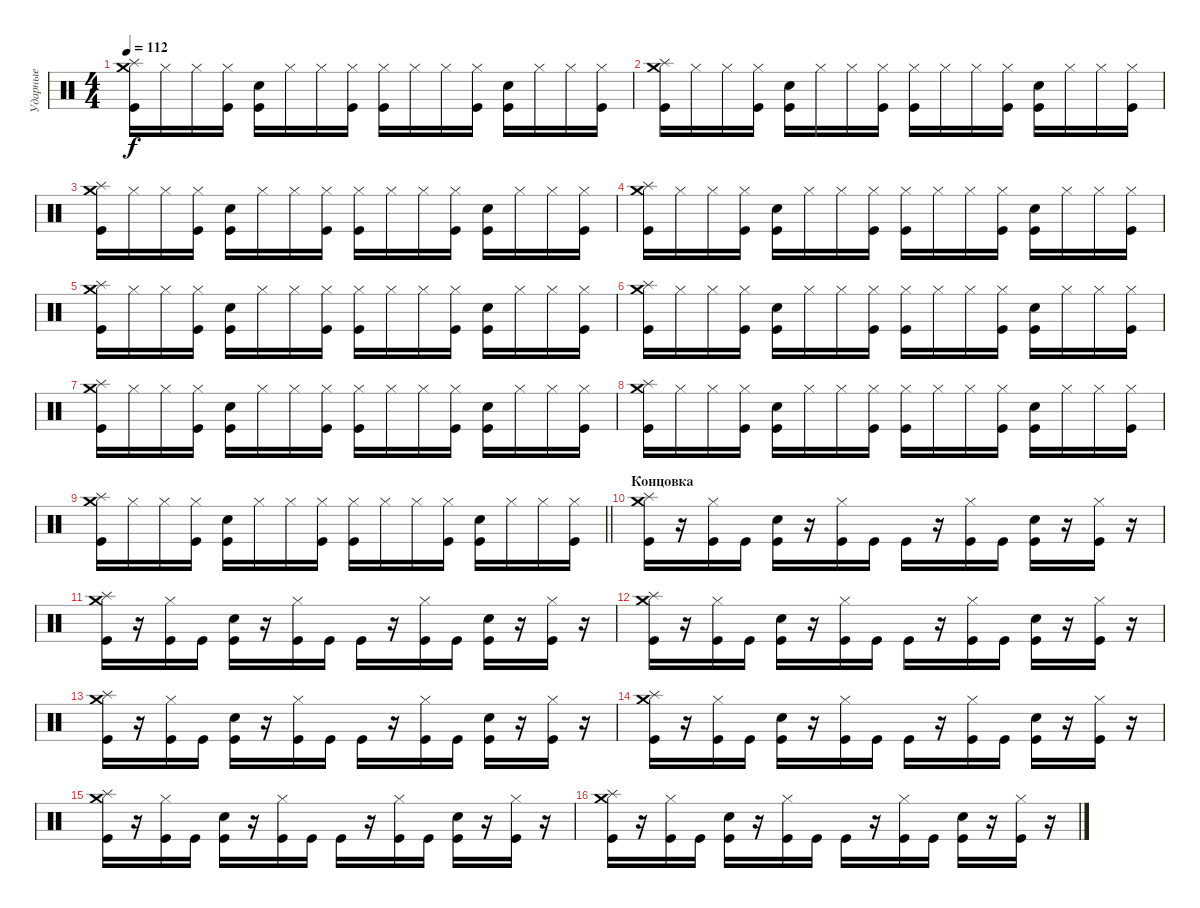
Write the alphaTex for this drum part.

\track ("Ударные" "Ударные") {instrument percussion}
\staff {score}
\articulation defaults
\ts (4 4)
\tempo 112
\clef neutral
\ks c
("Splash (hit)" "Crash medium (hit)" "Kick (hit)").16{dy f} "Hi-Hat (closed)".16 "Hi-Hat (closed)".16 ("Hi-Hat (closed)" "Kick (hit)").16 ("Snare (hit) 2" "Kick (hit)").16 "Hi-Hat (closed)".16 "Hi-Hat (closed)".16 ("Hi-Hat (closed)" "Kick (hit)").16 ("Hi-Hat (closed)" "Kick (hit)").16 "Hi-Hat (closed)".16 "Hi-Hat (closed)".16 ("Hi-Hat (closed)" "Kick (hit)").16 ("Snare (hit) 2" "Kick (hit)").16 "Hi-Hat (closed)".16 "Hi-Hat (closed)".16 ("Hi-Hat (closed)" "Kick (hit)").16 |
("Splash (hit)" "Crash medium (hit)" "Kick (hit)").16 "Hi-Hat (closed)".16 "Hi-Hat (closed)".16 ("Hi-Hat (closed)" "Kick (hit)").16 ("Snare (hit) 2" "Kick (hit)").16 "Hi-Hat (closed)".16 "Hi-Hat (closed)".16 ("Hi-Hat (closed)" "Kick (hit)").16 ("Hi-Hat (closed)" "Kick (hit)").16 "Hi-Hat (closed)".16 "Hi-Hat (closed)".16 ("Hi-Hat (closed)" "Kick (hit)").16 ("Snare (hit) 2" "Kick (hit)").16 "Hi-Hat (closed)".16 "Hi-Hat (closed)".16 ("Hi-Hat (closed)" "Kick (hit)").16 |
("Splash (hit)" "Crash medium (hit)" "Kick (hit)").16 "Hi-Hat (closed)".16 "Hi-Hat (closed)".16 ("Hi-Hat (closed)" "Kick (hit)").16 ("Snare (hit) 2" "Kick (hit)").16 "Hi-Hat (closed)".16 "Hi-Hat (closed)".16 ("Hi-Hat (closed)" "Kick (hit)").16 ("Hi-Hat (closed)" "Kick (hit)").16 "Hi-Hat (closed)".16 "Hi-Hat (closed)".16 ("Hi-Hat (closed)" "Kick (hit)").16 ("Snare (hit) 2" "Kick (hit)").16 "Hi-Hat (closed)".16 "Hi-Hat (closed)".16 ("Hi-Hat (closed)" "Kick (hit)").16 |
("Splash (hit)" "Crash medium (hit)" "Kick (hit)").16 "Hi-Hat (closed)".16 "Hi-Hat (closed)".16 ("Hi-Hat (closed)" "Kick (hit)").16 ("Snare (hit) 2" "Kick (hit)").16 "Hi-Hat (closed)".16 "Hi-Hat (closed)".16 ("Hi-Hat (closed)" "Kick (hit)").16 ("Hi-Hat (closed)" "Kick (hit)").16 "Hi-Hat (closed)".16 "Hi-Hat (closed)".16 ("Hi-Hat (closed)" "Kick (hit)").16 ("Snare (hit) 2" "Kick (hit)").16 "Hi-Hat (closed)".16 "Hi-Hat (closed)".16 ("Hi-Hat (closed)" "Kick (hit)").16 |
("Splash (hit)" "Crash medium (hit)" "Kick (hit)").16 "Hi-Hat (closed)".16 "Hi-Hat (closed)".16 ("Hi-Hat (closed)" "Kick (hit)").16 ("Snare (hit) 2" "Kick (hit)").16 "Hi-Hat (closed)".16 "Hi-Hat (closed)".16 ("Hi-Hat (closed)" "Kick (hit)").16 ("Hi-Hat (closed)" "Kick (hit)").16 "Hi-Hat (closed)".16 "Hi-Hat (closed)".16 ("Hi-Hat (closed)" "Kick (hit)").16 ("Snare (hit) 2" "Kick (hit)").16 "Hi-Hat (closed)".16 "Hi-Hat (closed)".16 ("Hi-Hat (closed)" "Kick (hit)").16 |
("Splash (hit)" "Crash medium (hit)" "Kick (hit)").16 "Hi-Hat (closed)".16 "Hi-Hat (closed)".16 ("Hi-Hat (closed)" "Kick (hit)").16 ("Snare (hit) 2" "Kick (hit)").16 "Hi-Hat (closed)".16 "Hi-Hat (closed)".16 ("Hi-Hat (closed)" "Kick (hit)").16 ("Hi-Hat (closed)" "Kick (hit)").16 "Hi-Hat (closed)".16 "Hi-Hat (closed)".16 ("Hi-Hat (closed)" "Kick (hit)").16 ("Snare (hit) 2" "Kick (hit)").16 "Hi-Hat (closed)".16 "Hi-Hat (closed)".16 ("Hi-Hat (closed)" "Kick (hit)").16 |
("Splash (hit)" "Crash medium (hit)" "Kick (hit)").16 "Hi-Hat (closed)".16 "Hi-Hat (closed)".16 ("Hi-Hat (closed)" "Kick (hit)").16 ("Snare (hit) 2" "Kick (hit)").16 "Hi-Hat (closed)".16 "Hi-Hat (closed)".16 ("Hi-Hat (closed)" "Kick (hit)").16 ("Hi-Hat (closed)" "Kick (hit)").16 "Hi-Hat (closed)".16 "Hi-Hat (closed)".16 ("Hi-Hat (closed)" "Kick (hit)").16 ("Snare (hit) 2" "Kick (hit)").16 "Hi-Hat (closed)".16 "Hi-Hat (closed)".16 ("Hi-Hat (closed)" "Kick (hit)").16 |
("Splash (hit)" "Crash medium (hit)" "Kick (hit)").16 "Hi-Hat (closed)".16 "Hi-Hat (closed)".16 ("Hi-Hat (closed)" "Kick (hit)").16 ("Snare (hit) 2" "Kick (hit)").16 "Hi-Hat (closed)".16 "Hi-Hat (closed)".16 ("Hi-Hat (closed)" "Kick (hit)").16 ("Hi-Hat (closed)" "Kick (hit)").16 "Hi-Hat (closed)".16 "Hi-Hat (closed)".16 ("Hi-Hat (closed)" "Kick (hit)").16 ("Snare (hit) 2" "Kick (hit)").16 "Hi-Hat (closed)".16 "Hi-Hat (closed)".16 ("Hi-Hat (closed)" "Kick (hit)").16 |
\barLineRight lightlight
("Splash (hit)" "Crash medium (hit)" "Kick (hit)").16 "Hi-Hat (closed)".16 "Hi-Hat (closed)".16 ("Hi-Hat (closed)" "Kick (hit)").16 ("Snare (hit) 2" "Kick (hit)").16 "Hi-Hat (closed)".16 "Hi-Hat (closed)".16 ("Hi-Hat (closed)" "Kick (hit)").16 ("Hi-Hat (closed)" "Kick (hit)").16 "Hi-Hat (closed)".16 "Hi-Hat (closed)".16 ("Hi-Hat (closed)" "Kick (hit)").16 ("Snare (hit) 2" "Kick (hit)").16 "Hi-Hat (closed)".16 "Hi-Hat (closed)".16 ("Hi-Hat (closed)" "Kick (hit)").16 |
\section ("" "Концовка")
("Splash (hit)" "Crash medium (hit)" "Kick (hit)").16 r.16 ("Hi-Hat (closed)" "Kick (hit)").16 "Kick (hit)".16 ("Snare (hit) 2" "Kick (hit)").16 r.16 ("Hi-Hat (closed)" "Kick (hit)").16 "Kick (hit)".16 "Kick (hit)".16 r.16 ("Hi-Hat (closed)" "Kick (hit)").16 "Kick (hit)".16 ("Snare (hit) 2" "Kick (hit)").16 r.16 ("Hi-Hat (closed)" "Kick (hit)").16 r.16 |
("Splash (hit)" "Crash medium (hit)" "Kick (hit)").16 r.16 ("Hi-Hat (closed)" "Kick (hit)").16 "Kick (hit)".16 ("Snare (hit) 2" "Kick (hit)").16 r.16 ("Hi-Hat (closed)" "Kick (hit)").16 "Kick (hit)".16 "Kick (hit)".16 r.16 ("Hi-Hat (closed)" "Kick (hit)").16 "Kick (hit)".16 ("Snare (hit) 2" "Kick (hit)").16 r.16 ("Hi-Hat (closed)" "Kick (hit)").16 r.16 |
("Splash (hit)" "Crash medium (hit)" "Kick (hit)").16 r.16 ("Hi-Hat (closed)" "Kick (hit)").16 "Kick (hit)".16 ("Snare (hit) 2" "Kick (hit)").16 r.16 ("Hi-Hat (closed)" "Kick (hit)").16 "Kick (hit)".16 "Kick (hit)".16 r.16 ("Hi-Hat (closed)" "Kick (hit)").16 "Kick (hit)".16 ("Snare (hit) 2" "Kick (hit)").16 r.16 ("Hi-Hat (closed)" "Kick (hit)").16 r.16 |
("Splash (hit)" "Crash medium (hit)" "Kick (hit)").16 r.16 ("Hi-Hat (closed)" "Kick (hit)").16 "Kick (hit)".16 ("Snare (hit) 2" "Kick (hit)").16 r.16 ("Hi-Hat (closed)" "Kick (hit)").16 "Kick (hit)".16 "Kick (hit)".16 r.16 ("Hi-Hat (closed)" "Kick (hit)").16 "Kick (hit)".16 ("Snare (hit) 2" "Kick (hit)").16 r.16 ("Hi-Hat (closed)" "Kick (hit)").16 r.16 |
("Splash (hit)" "Crash medium (hit)" "Kick (hit)").16{volume 10} r.16 ("Hi-Hat (closed)" "Kick (hit)").16 "Kick (hit)".16 ("Snare (hit) 2" "Kick (hit)").16 r.16 ("Hi-Hat (closed)" "Kick (hit)").16 "Kick (hit)".16 "Kick (hit)".16 r.16 ("Hi-Hat (closed)" "Kick (hit)").16 "Kick (hit)".16 ("Snare (hit) 2" "Kick (hit)").16 r.16 ("Hi-Hat (closed)" "Kick (hit)").16 r.16 |
("Splash (hit)" "Crash medium (hit)" "Kick (hit)").16{volume 7} r.16 ("Hi-Hat (closed)" "Kick (hit)").16 "Kick (hit)".16 ("Snare (hit) 2" "Kick (hit)").16 r.16 ("Hi-Hat (closed)" "Kick (hit)").16 "Kick (hit)".16 "Kick (hit)".16 r.16 ("Hi-Hat (closed)" "Kick (hit)").16 "Kick (hit)".16 ("Snare (hit) 2" "Kick (hit)").16 r.16 ("Hi-Hat (closed)" "Kick (hit)").16 r.16 |
("Splash (hit)" "Crash medium (hit)" "Kick (hit)").16{volume 5} r.16 ("Hi-Hat (closed)" "Kick (hit)").16 "Kick (hit)".16 ("Snare (hit) 2" "Kick (hit)").16 r.16 ("Hi-Hat (closed)" "Kick (hit)").16 "Kick (hit)".16 "Kick (hit)".16 r.16 ("Hi-Hat (closed)" "Kick (hit)").16 "Kick (hit)".16 ("Snare (hit) 2" "Kick (hit)").16 r.16 ("Hi-Hat (closed)" "Kick (hit)").16 r.16
